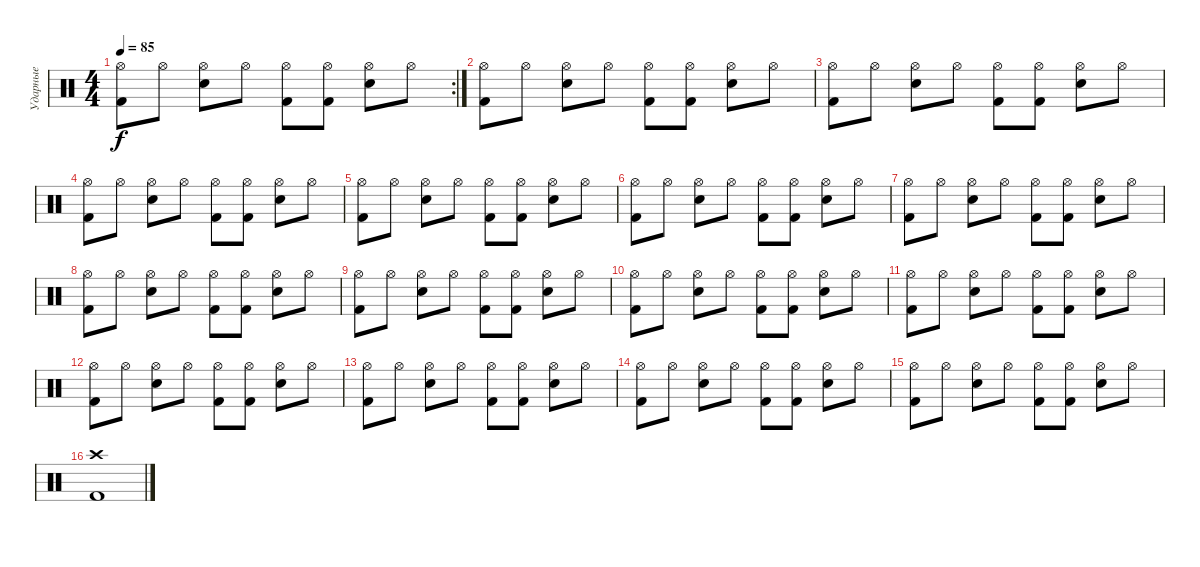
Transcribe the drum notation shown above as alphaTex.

\track ("Ударные" "Ударные") {instrument percussion}
\staff {score}
\articulation defaults
\rc 2
\ts (4 4)
\tempo 85
\clef neutral
\ks c
("Hi-Hat (open)" "Kick (hit) 2").8{dy f} "Hi-Hat (open)".8 ("Hi-Hat (open)" "Electric Snare (hit)").8 "Hi-Hat (open)".8 ("Hi-Hat (open)" "Kick (hit) 2").8 ("Hi-Hat (open)" "Kick (hit) 2").8 ("Hi-Hat (open)" "Electric Snare (hit)").8 "Hi-Hat (open)".8 |
("Hi-Hat (open)" "Kick (hit) 2").8 "Hi-Hat (open)".8 ("Hi-Hat (open)" "Electric Snare (hit)").8 "Hi-Hat (open)".8 ("Hi-Hat (open)" "Kick (hit) 2").8 ("Hi-Hat (open)" "Kick (hit) 2").8 ("Hi-Hat (open)" "Electric Snare (hit)").8 "Hi-Hat (open)".8 |
("Hi-Hat (open)" "Kick (hit) 2").8 "Hi-Hat (open)".8 ("Hi-Hat (open)" "Electric Snare (hit)").8 "Hi-Hat (open)".8 ("Hi-Hat (open)" "Kick (hit) 2").8 ("Hi-Hat (open)" "Kick (hit) 2").8 ("Hi-Hat (open)" "Electric Snare (hit)").8 "Hi-Hat (open)".8 |
("Hi-Hat (open)" "Kick (hit) 2").8 "Hi-Hat (open)".8 ("Hi-Hat (open)" "Electric Snare (hit)").8 "Hi-Hat (open)".8 ("Hi-Hat (open)" "Kick (hit) 2").8 ("Hi-Hat (open)" "Kick (hit) 2").8 ("Hi-Hat (open)" "Electric Snare (hit)").8 "Hi-Hat (open)".8 |
("Hi-Hat (open)" "Kick (hit) 2").8 "Hi-Hat (open)".8 ("Hi-Hat (open)" "Electric Snare (hit)").8 "Hi-Hat (open)".8 ("Hi-Hat (open)" "Kick (hit) 2").8 ("Hi-Hat (open)" "Kick (hit) 2").8 ("Hi-Hat (open)" "Electric Snare (hit)").8 "Hi-Hat (open)".8 |
("Hi-Hat (open)" "Kick (hit) 2").8 "Hi-Hat (open)".8 ("Hi-Hat (open)" "Electric Snare (hit)").8 "Hi-Hat (open)".8 ("Hi-Hat (open)" "Kick (hit) 2").8 ("Hi-Hat (open)" "Kick (hit) 2").8 ("Hi-Hat (open)" "Electric Snare (hit)").8 "Hi-Hat (open)".8 |
("Hi-Hat (open)" "Kick (hit) 2").8 "Hi-Hat (open)".8 ("Hi-Hat (open)" "Electric Snare (hit)").8 "Hi-Hat (open)".8 ("Hi-Hat (open)" "Kick (hit) 2").8 ("Hi-Hat (open)" "Kick (hit) 2").8 ("Hi-Hat (open)" "Electric Snare (hit)").8 "Hi-Hat (open)".8 |
("Hi-Hat (open)" "Kick (hit) 2").8 "Hi-Hat (open)".8 ("Hi-Hat (open)" "Electric Snare (hit)").8 "Hi-Hat (open)".8 ("Hi-Hat (open)" "Kick (hit) 2").8 ("Hi-Hat (open)" "Kick (hit) 2").8 ("Hi-Hat (open)" "Electric Snare (hit)").8 "Hi-Hat (open)".8 |
("Hi-Hat (open)" "Kick (hit) 2").8 "Hi-Hat (open)".8 ("Hi-Hat (open)" "Electric Snare (hit)").8 "Hi-Hat (open)".8 ("Hi-Hat (open)" "Kick (hit) 2").8 ("Hi-Hat (open)" "Kick (hit) 2").8 ("Hi-Hat (open)" "Electric Snare (hit)").8 "Hi-Hat (open)".8 |
("Hi-Hat (open)" "Kick (hit) 2").8 "Hi-Hat (open)".8 ("Hi-Hat (open)" "Electric Snare (hit)").8 "Hi-Hat (open)".8 ("Hi-Hat (open)" "Kick (hit) 2").8 ("Hi-Hat (open)" "Kick (hit) 2").8 ("Hi-Hat (open)" "Electric Snare (hit)").8 "Hi-Hat (open)".8 |
("Hi-Hat (open)" "Kick (hit) 2").8 "Hi-Hat (open)".8 ("Hi-Hat (open)" "Electric Snare (hit)").8 "Hi-Hat (open)".8 ("Hi-Hat (open)" "Kick (hit) 2").8 ("Hi-Hat (open)" "Kick (hit) 2").8 ("Hi-Hat (open)" "Electric Snare (hit)").8 "Hi-Hat (open)".8 |
("Hi-Hat (open)" "Kick (hit) 2").8 "Hi-Hat (open)".8 ("Hi-Hat (open)" "Electric Snare (hit)").8 "Hi-Hat (open)".8 ("Hi-Hat (open)" "Kick (hit) 2").8 ("Hi-Hat (open)" "Kick (hit) 2").8 ("Hi-Hat (open)" "Electric Snare (hit)").8 "Hi-Hat (open)".8 |
("Hi-Hat (open)" "Kick (hit) 2").8 "Hi-Hat (open)".8 ("Hi-Hat (open)" "Electric Snare (hit)").8 "Hi-Hat (open)".8 ("Hi-Hat (open)" "Kick (hit) 2").8 ("Hi-Hat (open)" "Kick (hit) 2").8 ("Hi-Hat (open)" "Electric Snare (hit)").8 "Hi-Hat (open)".8 |
("Hi-Hat (open)" "Kick (hit) 2").8 "Hi-Hat (open)".8 ("Hi-Hat (open)" "Electric Snare (hit)").8 "Hi-Hat (open)".8 ("Hi-Hat (open)" "Kick (hit) 2").8 ("Hi-Hat (open)" "Kick (hit) 2").8 ("Hi-Hat (open)" "Electric Snare (hit)").8 "Hi-Hat (open)".8 |
("Hi-Hat (open)" "Kick (hit) 2").8 "Hi-Hat (open)".8 ("Hi-Hat (open)" "Electric Snare (hit)").8 "Hi-Hat (open)".8 ("Hi-Hat (open)" "Kick (hit) 2").8 ("Hi-Hat (open)" "Kick (hit) 2").8 ("Hi-Hat (open)" "Electric Snare (hit)").8 "Hi-Hat (open)".8 |
("Crash high (hit)" "Kick (hit) 2").1
